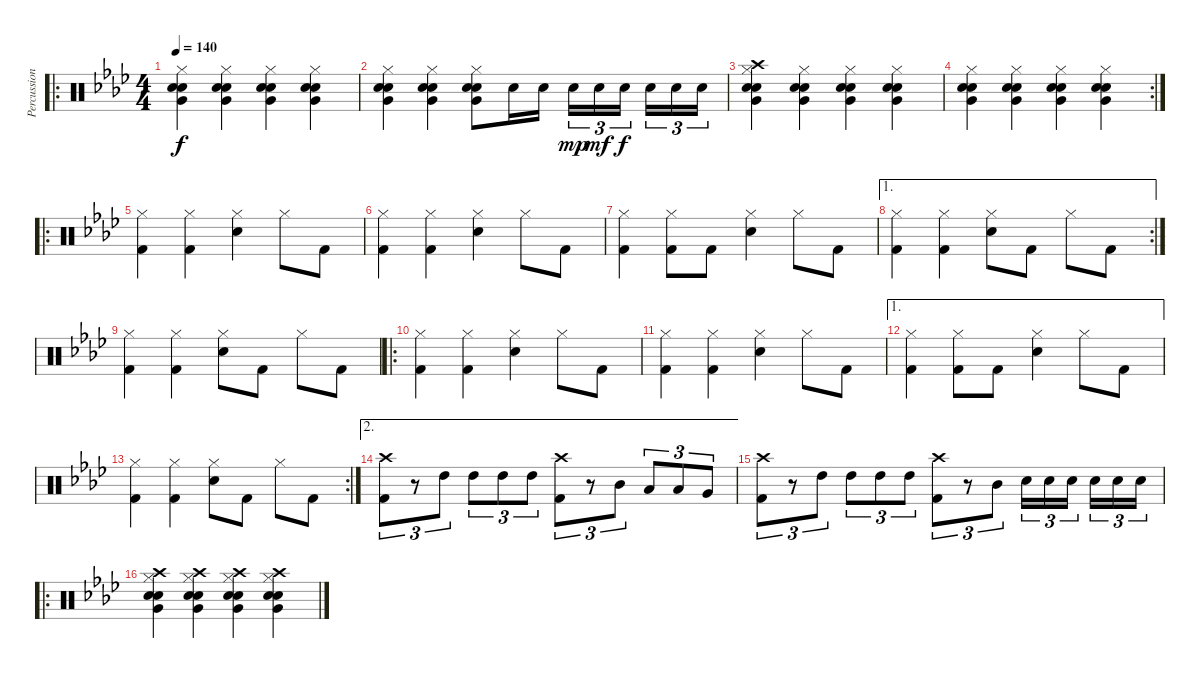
\track ("Percussion" "Percussion") {instrument percussion}
\staff {score}
\articulation defaults
\ro
\ts (4 4)
\tempo 140
\clef neutral
\ks fminor
("Electric Snare (hit)" "Very Low Tom (hit)" "Hand Clap (hit)" "Hi-Hat (closed)").4{dy f} ("Electric Snare (hit)" "Very Low Tom (hit)" "Hand Clap (hit)" "Hi-Hat (closed)").4 ("Electric Snare (hit)" "Very Low Tom (hit)" "Hand Clap (hit)" "Hi-Hat (closed)").4 ("Electric Snare (hit)" "Very Low Tom (hit)" "Hand Clap (hit)" "Hi-Hat (closed)").4 |
("Electric Snare (hit)" "Very Low Tom (hit)" "Hand Clap (hit)" "Hi-Hat (closed)").4 ("Electric Snare (hit)" "Very Low Tom (hit)" "Hand Clap (hit)" "Hi-Hat (closed)").4 ("Electric Snare (hit)" "Very Low Tom (hit)" "Hand Clap (hit)" "Hi-Hat (closed)").8 "Electric Snare (hit)".16 "Electric Snare (hit)".16 "Electric Snare (hit)".16{tu (3 2) dy mp} "Electric Snare (hit)".16{tu (3 2) dy mf} "Electric Snare (hit)".16{tu (3 2) dy f} "Electric Snare (hit)".16{tu (3 2)} "Electric Snare (hit)".16{tu (3 2)} "Electric Snare (hit)".16{tu (3 2)} |
("Electric Snare (hit)" "Very Low Tom (hit)" "Hand Clap (hit)" "Hi-Hat (closed)" "Crash high (hit)").4 ("Electric Snare (hit)" "Very Low Tom (hit)" "Hand Clap (hit)" "Hi-Hat (closed)").4 ("Electric Snare (hit)" "Very Low Tom (hit)" "Hand Clap (hit)" "Hi-Hat (closed)").4 ("Electric Snare (hit)" "Very Low Tom (hit)" "Hand Clap (hit)" "Hi-Hat (closed)").4 |
\rc 2
("Electric Snare (hit)" "Very Low Tom (hit)" "Hand Clap (hit)" "Hi-Hat (closed)").4 ("Electric Snare (hit)" "Very Low Tom (hit)" "Hand Clap (hit)" "Hi-Hat (closed)").4 ("Electric Snare (hit)" "Very Low Tom (hit)" "Hand Clap (hit)" "Hi-Hat (closed)").4 ("Electric Snare (hit)" "Very Low Tom (hit)" "Hand Clap (hit)" "Hi-Hat (closed)").4 |
\ro
("Hi-Hat (closed)" "Kick (hit) 2").4 ("Hi-Hat (closed)" "Kick (hit) 2").4 ("Hi-Hat (closed)" "Electric Snare (hit)").4 "Hi-Hat (closed)".8 "Kick (hit) 2".8 |
("Hi-Hat (closed)" "Kick (hit) 2").4 ("Hi-Hat (closed)" "Kick (hit) 2").4 ("Hi-Hat (closed)" "Electric Snare (hit)").4 "Hi-Hat (closed)".8 "Kick (hit) 2".8 |
("Hi-Hat (closed)" "Kick (hit) 2").4 ("Hi-Hat (closed)" "Kick (hit) 2").8 "Kick (hit) 2".8 ("Hi-Hat (closed)" "Electric Snare (hit)").4 "Hi-Hat (closed)".8 "Kick (hit) 2".8 |
\ae 1
\rc 2
("Hi-Hat (closed)" "Kick (hit) 2").4 ("Hi-Hat (closed)" "Kick (hit) 2").4 ("Hi-Hat (closed)" "Electric Snare (hit)").8 "Kick (hit) 2".8 "Hi-Hat (closed)".8 "Kick (hit) 2".8 |
("Hi-Hat (closed)" "Kick (hit) 2").4 ("Hi-Hat (closed)" "Kick (hit) 2").4 ("Hi-Hat (closed)" "Electric Snare (hit)").8 "Kick (hit) 2".8 "Hi-Hat (closed)".8 "Kick (hit) 2".8 |
\ro
("Hi-Hat (closed)" "Kick (hit) 2").4 ("Hi-Hat (closed)" "Kick (hit) 2").4 ("Hi-Hat (closed)" "Electric Snare (hit)").4 "Hi-Hat (closed)".8 "Kick (hit) 2".8 |
("Hi-Hat (closed)" "Kick (hit) 2").4 ("Hi-Hat (closed)" "Kick (hit) 2").4 ("Hi-Hat (closed)" "Electric Snare (hit)").4 "Hi-Hat (closed)".8 "Kick (hit) 2".8 |
\ae 1
("Hi-Hat (closed)" "Kick (hit) 2").4 ("Hi-Hat (closed)" "Kick (hit) 2").8 "Kick (hit) 2".8 ("Hi-Hat (closed)" "Electric Snare (hit)").4 "Hi-Hat (closed)".8 "Kick (hit) 2".8 |
\rc 2
("Hi-Hat (closed)" "Kick (hit) 2").4 ("Hi-Hat (closed)" "Kick (hit) 2").4 ("Hi-Hat (closed)" "Electric Snare (hit)").8 "Kick (hit) 2".8 "Hi-Hat (closed)".8 "Kick (hit) 2".8 |
\ae 2
("Kick (hit) 2" "Crash high (hit)").8{tu (3 2)} r.8{tu (3 2)} "High Tom (hit)".8{tu (3 2)} "High Tom (hit)".8{tu (3 2)} "High Tom (hit)".8{tu (3 2)} "High Tom (hit)".8{tu (3 2)} ("Kick (hit) 2" "Crash high (hit)").8{tu (3 2)} r.8{tu (3 2)} "Mid Tom (hit)".8{tu (3 2)} "Low Tom (hit)".8{tu (3 2)} "Low Tom (hit)".8{tu (3 2)} "Very Low Tom (hit)".8{tu (3 2)} |
("Kick (hit) 2" "Crash high (hit)").8{tu (3 2)} r.8{tu (3 2)} "High Tom (hit)".8{tu (3 2)} "High Tom (hit)".8{tu (3 2)} "High Tom (hit)".8{tu (3 2)} "High Tom (hit)".8{tu (3 2)} ("Kick (hit) 2" "Crash high (hit)").8{tu (3 2)} r.8{tu (3 2)} "Mid Tom (hit)".8{tu (3 2)} "Electric Snare (hit)".16{tu (3 2)} "Electric Snare (hit)".16{tu (3 2)} "Electric Snare (hit)".16{tu (3 2)} "Electric Snare (hit)".16{tu (3 2)} "Electric Snare (hit)".16{tu (3 2)} "Electric Snare (hit)".16{tu (3 2)} |
\ro
("Electric Snare (hit)" "Very Low Tom (hit)" "Hand Clap (hit)" "Hi-Hat (closed)" "Crash high (hit)").4 ("Electric Snare (hit)" "Very Low Tom (hit)" "Hand Clap (hit)" "Hi-Hat (closed)" "Crash high (hit)").4 ("Electric Snare (hit)" "Very Low Tom (hit)" "Hand Clap (hit)" "Hi-Hat (closed)" "Crash high (hit)").4 ("Electric Snare (hit)" "Very Low Tom (hit)" "Hand Clap (hit)" "Hi-Hat (closed)" "Crash high (hit)").4
